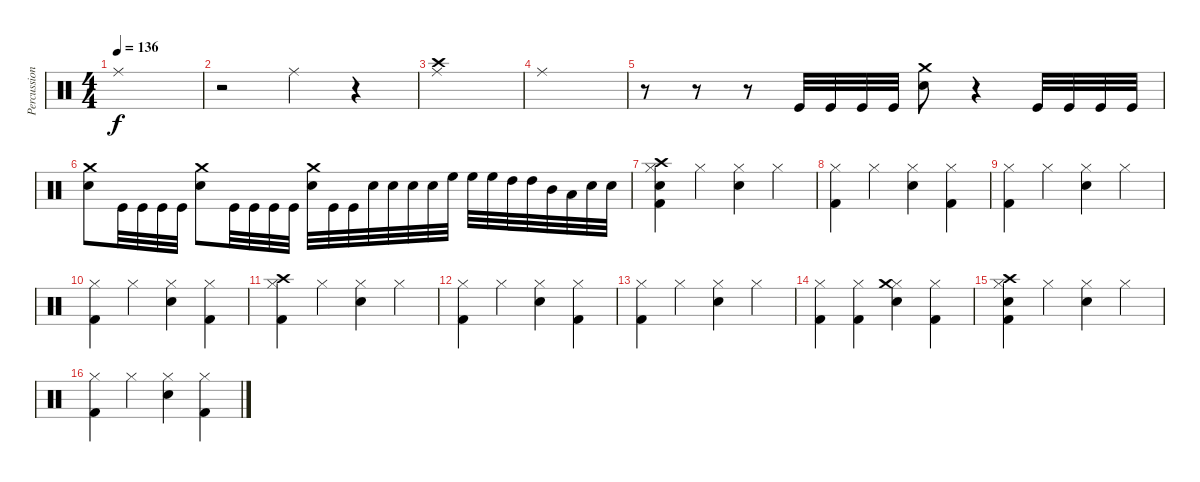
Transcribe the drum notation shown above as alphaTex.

\track ("Percussion" "Percussion") {instrument percussion}
\staff {score}
\articulation defaults
\ts (4 4)
\tempo 136
\clef neutral
\ks c "Ride (middle)".1{dy f}
|
r.2 "Ride (middle)".4 r.4 |
("Ride (middle)" "Crash high (hit)").1 |
"Ride (middle)".1 |
r.8 r.8 r.8 "Kick (hit)".32 "Kick (hit)".32 "Kick (hit)".32 "Kick (hit)".32 ("Crash medium (hit)" "Electric Snare (hit)").8 r.4 "Kick (hit)".32 "Kick (hit)".32 "Kick (hit)".32 "Kick (hit)".32 |
("Crash medium (hit)" "Electric Snare (hit)").8 "Kick (hit)".32 "Kick (hit)".32 "Kick (hit)".32 "Kick (hit)".32 ("Crash medium (hit)" "Electric Snare (hit)").8 "Kick (hit)".32 "Kick (hit)".32 "Kick (hit)".32 "Kick (hit)".32 ("Crash medium (hit)" "Electric Snare (hit)").32 "Kick (hit)".32 "Kick (hit)".32 "Snare (hit) 2".32 "Snare (hit) 2".32 "Snare (hit) 2".32 "Snare (hit) 2".32 "High Floor Tom (hit)".32 "High Floor Tom (hit)".32 "High Floor Tom (hit)".32 "High Tom (hit)".32 "High Tom (hit)".32 "Mid Tom (hit)".32 "Low Tom (hit)".32 "Electric Snare (hit)".32 "Electric Snare (hit)".32 |
("Hi-Hat (closed)" "Crash high (hit)" "Electric Snare (hit)" "Kick (hit) 2").4 "Hi-Hat (closed)".4 ("Hi-Hat (closed)" "Electric Snare (hit)").4 "Hi-Hat (closed)".4 |
("Hi-Hat (closed)" "Kick (hit) 2").4 "Hi-Hat (closed)".4 ("Hi-Hat (closed)" "Electric Snare (hit)").4 ("Hi-Hat (closed)" "Kick (hit) 2").4 |
("Hi-Hat (closed)" "Kick (hit) 2").4 "Hi-Hat (closed)".4 ("Hi-Hat (closed)" "Electric Snare (hit)").4 "Hi-Hat (closed)".4 |
("Hi-Hat (closed)" "Kick (hit) 2").4 "Hi-Hat (closed)".4 ("Hi-Hat (closed)" "Electric Snare (hit)").4 ("Hi-Hat (closed)" "Kick (hit) 2").4 |
("Hi-Hat (closed)" "Crash high (hit)" "Kick (hit) 2").4 "Hi-Hat (closed)".4 ("Hi-Hat (closed)" "Electric Snare (hit)").4 "Hi-Hat (closed)".4 |
("Hi-Hat (closed)" "Kick (hit) 2").4 "Hi-Hat (closed)".4 ("Hi-Hat (closed)" "Electric Snare (hit)").4 ("Hi-Hat (closed)" "Kick (hit) 2").4 |
("Hi-Hat (closed)" "Kick (hit) 2").4 "Hi-Hat (closed)".4 ("Hi-Hat (closed)" "Electric Snare (hit)").4 "Hi-Hat (closed)".4 |
("Hi-Hat (closed)" "Kick (hit) 2").4 ("Hi-Hat (closed)" "Kick (hit) 2").4 ("Hi-Hat (closed)" "Crash medium (hit)" "Electric Snare (hit)").4 ("Hi-Hat (closed)" "Kick (hit) 2").4 |
("Hi-Hat (closed)" "Crash high (hit)" "Electric Snare (hit)" "Kick (hit) 2").4 "Hi-Hat (closed)".4 ("Hi-Hat (closed)" "Electric Snare (hit)").4 "Hi-Hat (closed)".4 |
("Hi-Hat (closed)" "Kick (hit) 2").4 "Hi-Hat (closed)".4 ("Hi-Hat (closed)" "Electric Snare (hit)").4 ("Hi-Hat (closed)" "Kick (hit) 2").4
